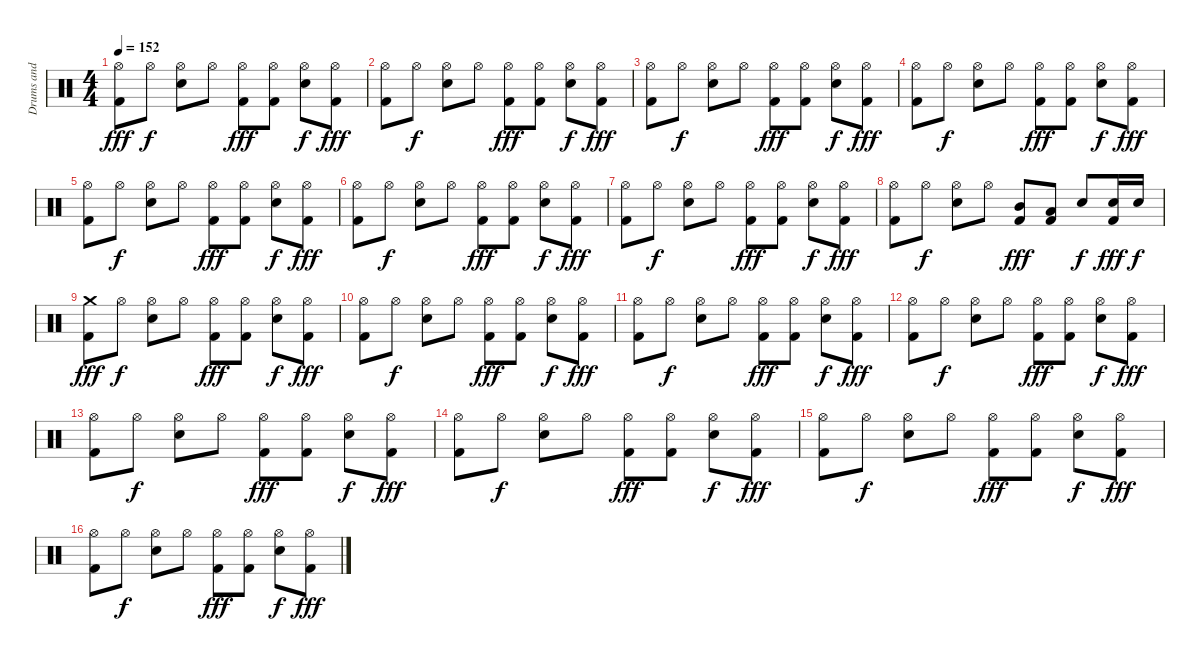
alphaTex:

\track ("Drums and Percussion" "Drums and ") {instrument percussion}
\staff {score}
\articulation defaults
\ts (4 4)
\tempo 152
\clef neutral
\ks c
("Hi-Hat (open)" "Kick (hit) 2").8{dy fff} "Hi-Hat (open)".8{dy f} ("Hi-Hat (open)" "Snare (hit) 2").8 "Hi-Hat (open)".8 ("Hi-Hat (open)" "Kick (hit) 2").8{dy fff} ("Hi-Hat (open)" "Kick (hit) 2").8 ("Hi-Hat (open)" "Snare (hit) 2").8{dy f} ("Hi-Hat (open)" "Kick (hit) 2").8{dy fff} |
("Hi-Hat (open)" "Kick (hit) 2").8 "Hi-Hat (open)".8{dy f} ("Hi-Hat (open)" "Snare (hit) 2").8 "Hi-Hat (open)".8 ("Hi-Hat (open)" "Kick (hit) 2").8{dy fff} ("Hi-Hat (open)" "Kick (hit) 2").8 ("Hi-Hat (open)" "Snare (hit) 2").8{dy f} ("Hi-Hat (open)" "Kick (hit) 2").8{dy fff} |
("Hi-Hat (open)" "Kick (hit) 2").8 "Hi-Hat (open)".8{dy f} ("Hi-Hat (open)" "Snare (hit) 2").8 "Hi-Hat (open)".8 ("Hi-Hat (open)" "Kick (hit) 2").8{dy fff} ("Hi-Hat (open)" "Kick (hit) 2").8 ("Hi-Hat (open)" "Snare (hit) 2").8{dy f} ("Hi-Hat (open)" "Kick (hit) 2").8{dy fff} |
("Hi-Hat (open)" "Kick (hit) 2").8 "Hi-Hat (open)".8{dy f} ("Hi-Hat (open)" "Snare (hit) 2").8 "Hi-Hat (open)".8 ("Hi-Hat (open)" "Kick (hit) 2").8{dy fff} ("Hi-Hat (open)" "Kick (hit) 2").8 ("Hi-Hat (open)" "Snare (hit) 2").8{dy f} ("Hi-Hat (open)" "Kick (hit) 2").8{dy fff} |
("Hi-Hat (open)" "Kick (hit) 2").8 "Hi-Hat (open)".8{dy f} ("Hi-Hat (open)" "Snare (hit) 2").8 "Hi-Hat (open)".8 ("Hi-Hat (open)" "Kick (hit) 2").8{dy fff} ("Hi-Hat (open)" "Kick (hit) 2").8 ("Hi-Hat (open)" "Snare (hit) 2").8{dy f} ("Hi-Hat (open)" "Kick (hit) 2").8{dy fff} |
("Hi-Hat (open)" "Kick (hit) 2").8 "Hi-Hat (open)".8{dy f} ("Hi-Hat (open)" "Snare (hit) 2").8 "Hi-Hat (open)".8 ("Hi-Hat (open)" "Kick (hit) 2").8{dy fff} ("Hi-Hat (open)" "Kick (hit) 2").8 ("Hi-Hat (open)" "Snare (hit) 2").8{dy f} ("Hi-Hat (open)" "Kick (hit) 2").8{dy fff} |
("Hi-Hat (open)" "Kick (hit) 2").8 "Hi-Hat (open)".8{dy f} ("Hi-Hat (open)" "Snare (hit) 2").8 "Hi-Hat (open)".8 ("Hi-Hat (open)" "Kick (hit) 2").8{dy fff} ("Hi-Hat (open)" "Kick (hit) 2").8 ("Hi-Hat (open)" "Snare (hit) 2").8{dy f} ("Hi-Hat (open)" "Kick (hit) 2").8{dy fff} |
("Hi-Hat (open)" "Kick (hit) 2").8 "Hi-Hat (open)".8{dy f} ("Hi-Hat (open)" "Snare (hit) 2").8 "Hi-Hat (open)".8 ("Mid Tom (hit)" "Kick (hit) 2").8{dy fff} ("Low Tom (hit)" "Kick (hit) 2").8 "Snare (hit) 2".8{dy f} ("Snare (hit) 2" "Kick (hit) 2").16{dy fff} "Snare (hit) 2".16{dy f} |
("Crash medium (hit)" "Kick (hit) 2").8{dy fff} "Hi-Hat (open)".8{dy f} ("Hi-Hat (open)" "Snare (hit) 2").8 "Hi-Hat (open)".8 ("Hi-Hat (open)" "Kick (hit) 2").8{dy fff} ("Hi-Hat (open)" "Kick (hit) 2").8 ("Hi-Hat (open)" "Snare (hit) 2").8{dy f} ("Hi-Hat (open)" "Kick (hit) 2").8{dy fff} |
("Hi-Hat (open)" "Kick (hit) 2").8 "Hi-Hat (open)".8{dy f} ("Hi-Hat (open)" "Snare (hit) 2").8 "Hi-Hat (open)".8 ("Hi-Hat (open)" "Kick (hit) 2").8{dy fff} ("Hi-Hat (open)" "Kick (hit) 2").8 ("Hi-Hat (open)" "Snare (hit) 2").8{dy f} ("Hi-Hat (open)" "Kick (hit) 2").8{dy fff} |
("Hi-Hat (open)" "Kick (hit) 2").8 "Hi-Hat (open)".8{dy f} ("Hi-Hat (open)" "Snare (hit) 2").8 "Hi-Hat (open)".8 ("Hi-Hat (open)" "Kick (hit) 2").8{dy fff} ("Hi-Hat (open)" "Kick (hit) 2").8 ("Hi-Hat (open)" "Snare (hit) 2").8{dy f} ("Hi-Hat (open)" "Kick (hit) 2").8{dy fff} |
("Hi-Hat (open)" "Kick (hit) 2").8 "Hi-Hat (open)".8{dy f} ("Hi-Hat (open)" "Snare (hit) 2").8 "Hi-Hat (open)".8 ("Hi-Hat (open)" "Kick (hit) 2").8{dy fff} ("Hi-Hat (open)" "Kick (hit) 2").8 ("Hi-Hat (open)" "Snare (hit) 2").8{dy f} ("Hi-Hat (open)" "Kick (hit) 2").8{dy fff} |
("Hi-Hat (open)" "Kick (hit) 2").8 "Hi-Hat (open)".8{dy f} ("Hi-Hat (open)" "Snare (hit) 2").8 "Hi-Hat (open)".8 ("Hi-Hat (open)" "Kick (hit) 2").8{dy fff} ("Hi-Hat (open)" "Kick (hit) 2").8 ("Hi-Hat (open)" "Snare (hit) 2").8{dy f} ("Hi-Hat (open)" "Kick (hit) 2").8{dy fff} |
("Hi-Hat (open)" "Kick (hit) 2").8 "Hi-Hat (open)".8{dy f} ("Hi-Hat (open)" "Snare (hit) 2").8 "Hi-Hat (open)".8 ("Hi-Hat (open)" "Kick (hit) 2").8{dy fff} ("Hi-Hat (open)" "Kick (hit) 2").8 ("Hi-Hat (open)" "Snare (hit) 2").8{dy f} ("Hi-Hat (open)" "Kick (hit) 2").8{dy fff} |
("Hi-Hat (open)" "Kick (hit) 2").8 "Hi-Hat (open)".8{dy f} ("Hi-Hat (open)" "Snare (hit) 2").8 "Hi-Hat (open)".8 ("Hi-Hat (open)" "Kick (hit) 2").8{dy fff} ("Hi-Hat (open)" "Kick (hit) 2").8 ("Hi-Hat (open)" "Snare (hit) 2").8{dy f} ("Hi-Hat (open)" "Kick (hit) 2").8{dy fff} |
("Hi-Hat (open)" "Kick (hit) 2").8 "Hi-Hat (open)".8{dy f} ("Hi-Hat (open)" "Snare (hit) 2").8 "Hi-Hat (open)".8 ("Hi-Hat (open)" "Kick (hit) 2").8{dy fff} ("Hi-Hat (open)" "Kick (hit) 2").8 ("Hi-Hat (open)" "Snare (hit) 2").8{dy f} ("Hi-Hat (open)" "Kick (hit) 2").8{dy fff}
